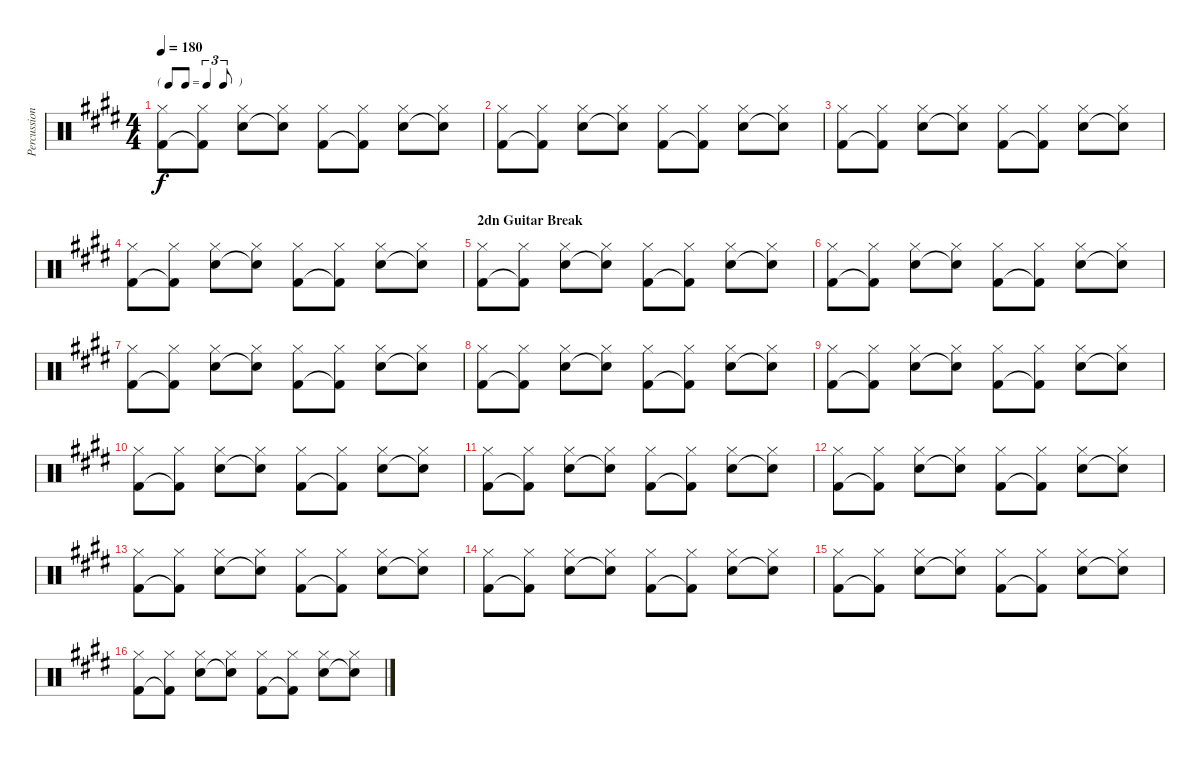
\track ("Percussion" "Percussion") {instrument percussion}
\staff {score}
\articulation defaults
\ts (4 4)
\tf triplet8th
\tempo 180
\clef neutral
\ks e
("Hi-Hat (closed)" "Kick (hit) 2").8{dy f} ("Hi-Hat (closed)" "Kick (hit) 2"{t}).8 ("Hi-Hat (closed)" "Snare (hit) 2").8 ("Hi-Hat (closed)" "Snare (hit) 2"{t}).8 ("Hi-Hat (closed)" "Kick (hit) 2").8 ("Hi-Hat (closed)" "Kick (hit) 2"{t}).8 ("Hi-Hat (closed)" "Snare (hit) 2").8 ("Hi-Hat (closed)" "Snare (hit) 2"{t}).8 |
("Hi-Hat (closed)" "Kick (hit) 2").8 ("Hi-Hat (closed)" "Kick (hit) 2"{t}).8 ("Hi-Hat (closed)" "Snare (hit) 2").8 ("Hi-Hat (closed)" "Snare (hit) 2"{t}).8 ("Hi-Hat (closed)" "Kick (hit) 2").8 ("Hi-Hat (closed)" "Kick (hit) 2"{t}).8 ("Hi-Hat (closed)" "Snare (hit) 2").8 ("Hi-Hat (closed)" "Snare (hit) 2"{t}).8 |
("Hi-Hat (closed)" "Kick (hit) 2").8 ("Hi-Hat (closed)" "Kick (hit) 2"{t}).8 ("Hi-Hat (closed)" "Snare (hit) 2").8 ("Hi-Hat (closed)" "Snare (hit) 2"{t}).8 ("Hi-Hat (closed)" "Kick (hit) 2").8 ("Hi-Hat (closed)" "Kick (hit) 2"{t}).8 ("Hi-Hat (closed)" "Snare (hit) 2").8 ("Hi-Hat (closed)" "Snare (hit) 2"{t}).8 |
("Hi-Hat (closed)" "Kick (hit) 2").8 ("Hi-Hat (closed)" "Kick (hit) 2"{t}).8 ("Hi-Hat (closed)" "Snare (hit) 2").8 ("Hi-Hat (closed)" "Snare (hit) 2"{t}).8 ("Hi-Hat (closed)" "Kick (hit) 2").8 ("Hi-Hat (closed)" "Kick (hit) 2"{t}).8 ("Hi-Hat (closed)" "Snare (hit) 2").8 ("Hi-Hat (closed)" "Snare (hit) 2"{t}).8 |
\section ("" "2dn Guitar Break")
("Hi-Hat (closed)" "Kick (hit) 2").8 ("Hi-Hat (closed)" "Kick (hit) 2"{t}).8 ("Hi-Hat (closed)" "Snare (hit) 2").8 ("Hi-Hat (closed)" "Snare (hit) 2"{t}).8 ("Hi-Hat (closed)" "Kick (hit) 2").8 ("Hi-Hat (closed)" "Kick (hit) 2"{t}).8 ("Hi-Hat (closed)" "Snare (hit) 2").8 ("Hi-Hat (closed)" "Snare (hit) 2"{t}).8 |
("Hi-Hat (closed)" "Kick (hit) 2").8 ("Hi-Hat (closed)" "Kick (hit) 2"{t}).8 ("Hi-Hat (closed)" "Snare (hit) 2").8 ("Hi-Hat (closed)" "Snare (hit) 2"{t}).8 ("Hi-Hat (closed)" "Kick (hit) 2").8 ("Hi-Hat (closed)" "Kick (hit) 2"{t}).8 ("Hi-Hat (closed)" "Snare (hit) 2").8 ("Hi-Hat (closed)" "Snare (hit) 2"{t}).8 |
("Hi-Hat (closed)" "Kick (hit) 2").8 ("Hi-Hat (closed)" "Kick (hit) 2"{t}).8 ("Hi-Hat (closed)" "Snare (hit) 2").8 ("Hi-Hat (closed)" "Snare (hit) 2"{t}).8 ("Hi-Hat (closed)" "Kick (hit) 2").8 ("Hi-Hat (closed)" "Kick (hit) 2"{t}).8 ("Hi-Hat (closed)" "Snare (hit) 2").8 ("Hi-Hat (closed)" "Snare (hit) 2"{t}).8 |
("Hi-Hat (closed)" "Kick (hit) 2").8 ("Hi-Hat (closed)" "Kick (hit) 2"{t}).8 ("Hi-Hat (closed)" "Snare (hit) 2").8 ("Hi-Hat (closed)" "Snare (hit) 2"{t}).8 ("Hi-Hat (closed)" "Kick (hit) 2").8 ("Hi-Hat (closed)" "Kick (hit) 2"{t}).8 ("Hi-Hat (closed)" "Snare (hit) 2").8 ("Hi-Hat (closed)" "Snare (hit) 2"{t}).8 |
("Hi-Hat (closed)" "Kick (hit) 2").8 ("Hi-Hat (closed)" "Kick (hit) 2"{t}).8 ("Hi-Hat (closed)" "Snare (hit) 2").8 ("Hi-Hat (closed)" "Snare (hit) 2"{t}).8 ("Hi-Hat (closed)" "Kick (hit) 2").8 ("Hi-Hat (closed)" "Kick (hit) 2"{t}).8 ("Hi-Hat (closed)" "Snare (hit) 2").8 ("Hi-Hat (closed)" "Snare (hit) 2"{t}).8 |
("Hi-Hat (closed)" "Kick (hit) 2").8 ("Hi-Hat (closed)" "Kick (hit) 2"{t}).8 ("Hi-Hat (closed)" "Snare (hit) 2").8 ("Hi-Hat (closed)" "Snare (hit) 2"{t}).8 ("Hi-Hat (closed)" "Kick (hit) 2").8 ("Hi-Hat (closed)" "Kick (hit) 2"{t}).8 ("Hi-Hat (closed)" "Snare (hit) 2").8 ("Hi-Hat (closed)" "Snare (hit) 2"{t}).8 |
("Hi-Hat (closed)" "Kick (hit) 2").8 ("Hi-Hat (closed)" "Kick (hit) 2"{t}).8 ("Hi-Hat (closed)" "Snare (hit) 2").8 ("Hi-Hat (closed)" "Snare (hit) 2"{t}).8 ("Hi-Hat (closed)" "Kick (hit) 2").8 ("Hi-Hat (closed)" "Kick (hit) 2"{t}).8 ("Hi-Hat (closed)" "Snare (hit) 2").8 ("Hi-Hat (closed)" "Snare (hit) 2"{t}).8 |
("Hi-Hat (closed)" "Kick (hit) 2").8 ("Hi-Hat (closed)" "Kick (hit) 2"{t}).8 ("Hi-Hat (closed)" "Snare (hit) 2").8 ("Hi-Hat (closed)" "Snare (hit) 2"{t}).8 ("Hi-Hat (closed)" "Kick (hit) 2").8 ("Hi-Hat (closed)" "Kick (hit) 2"{t}).8 ("Hi-Hat (closed)" "Snare (hit) 2").8 ("Hi-Hat (closed)" "Snare (hit) 2"{t}).8 |
("Hi-Hat (closed)" "Kick (hit) 2").8 ("Hi-Hat (closed)" "Kick (hit) 2"{t}).8 ("Hi-Hat (closed)" "Snare (hit) 2").8 ("Hi-Hat (closed)" "Snare (hit) 2"{t}).8 ("Hi-Hat (closed)" "Kick (hit) 2").8 ("Hi-Hat (closed)" "Kick (hit) 2"{t}).8 ("Hi-Hat (closed)" "Snare (hit) 2").8 ("Hi-Hat (closed)" "Snare (hit) 2"{t}).8 |
("Hi-Hat (closed)" "Kick (hit) 2").8 ("Hi-Hat (closed)" "Kick (hit) 2"{t}).8 ("Hi-Hat (closed)" "Snare (hit) 2").8 ("Hi-Hat (closed)" "Snare (hit) 2"{t}).8 ("Hi-Hat (closed)" "Kick (hit) 2").8 ("Hi-Hat (closed)" "Kick (hit) 2"{t}).8 ("Hi-Hat (closed)" "Snare (hit) 2").8 ("Hi-Hat (closed)" "Snare (hit) 2"{t}).8 |
("Hi-Hat (closed)" "Kick (hit) 2").8 ("Hi-Hat (closed)" "Kick (hit) 2"{t}).8 ("Hi-Hat (closed)" "Snare (hit) 2").8 ("Hi-Hat (closed)" "Snare (hit) 2"{t}).8 ("Hi-Hat (closed)" "Kick (hit) 2").8 ("Hi-Hat (closed)" "Kick (hit) 2"{t}).8 ("Hi-Hat (closed)" "Snare (hit) 2").8 ("Hi-Hat (closed)" "Snare (hit) 2"{t}).8 |
("Hi-Hat (closed)" "Kick (hit) 2").8 ("Hi-Hat (closed)" "Kick (hit) 2"{t}).8 ("Hi-Hat (closed)" "Snare (hit) 2").8 ("Hi-Hat (closed)" "Snare (hit) 2"{t}).8 ("Hi-Hat (closed)" "Kick (hit) 2").8 ("Hi-Hat (closed)" "Kick (hit) 2"{t}).8 ("Hi-Hat (closed)" "Snare (hit) 2").8 ("Hi-Hat (closed)" "Snare (hit) 2"{t}).8
